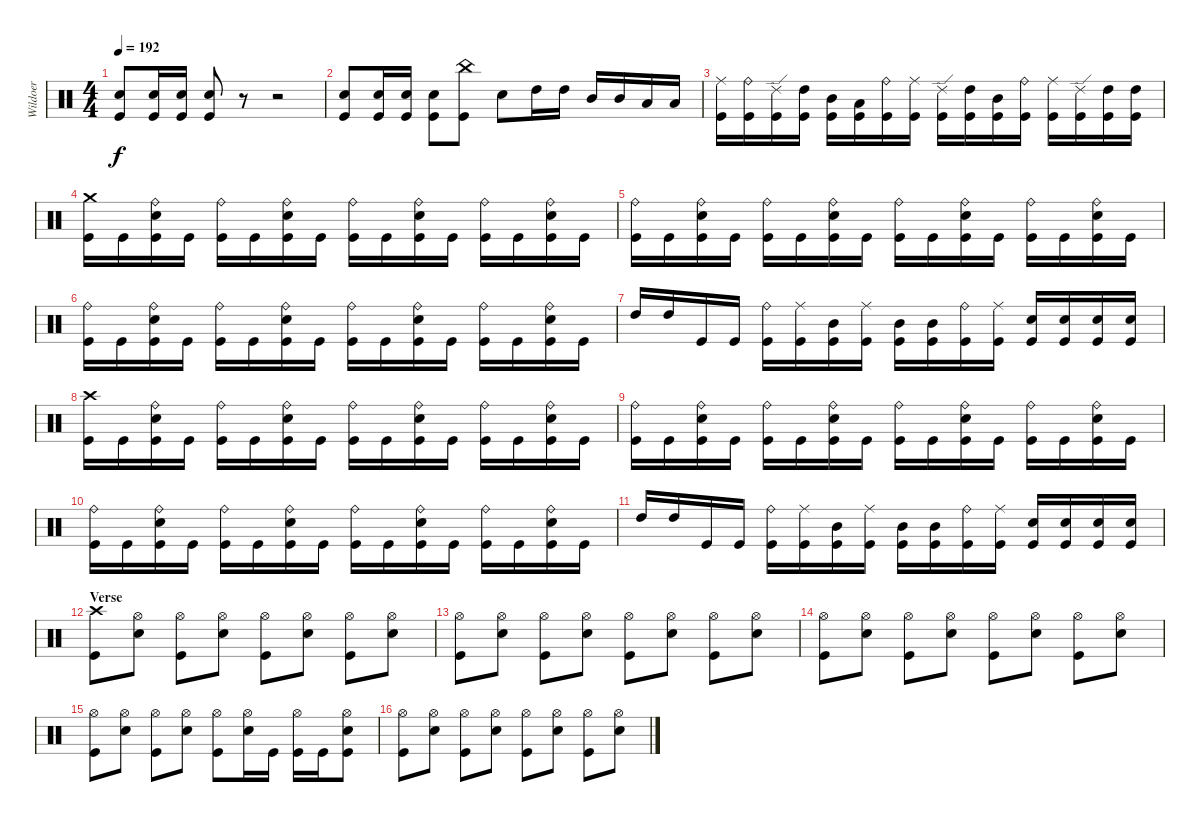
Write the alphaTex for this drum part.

\track ("Wildoer" "Wildoer") {instrument percussion}
\staff {score}
\articulation defaults
\ts (4 4)
\tempo 192
\clef neutral
\ks c
("Electric Snare (hit)" "Kick (hit)").8{dy f} ("Electric Snare (hit)" "Kick (hit)").16 ("Electric Snare (hit)" "Kick (hit)").16 ("Electric Snare (hit)" "Kick (hit)").8 r.8 r.2 |
("Electric Snare (hit)" "Kick (hit)").8 ("Electric Snare (hit)" "Kick (hit)").16 ("Electric Snare (hit)" "Kick (hit)").16 ("Electric Snare (hit)" "Kick (hit)").8 ("China (hit)" "Kick (hit)").8 "Electric Snare (hit)".8 "High Tom (hit)".16 "High Tom (hit)".16 "Mid Tom (hit)".16 "Mid Tom (hit)".16 "Low Tom (hit)".16 "Low Tom (hit)".16 |
("Ride (middle)" "Kick (hit)").16 ("Ride (bell)" "Kick (hit)").16 ("Ride (edge) 2" "Kick (hit)").16 ("High Tom (hit)" "Kick (hit)").16 ("Mid Tom (hit)" "Kick (hit)").16 ("Low Tom (hit)" "Kick (hit)").16 ("Ride (bell)" "Kick (hit)").16 ("Ride (middle)" "Kick (hit)").16 ("Ride (edge) 2" "Kick (hit)").16 ("High Tom (hit)" "Kick (hit)").16 ("Mid Tom (hit)" "Kick (hit)").16 ("Ride (bell)" "Kick (hit)").16 ("Ride (middle)" "Kick (hit)").16 ("Ride (edge) 2" "Kick (hit)").16 ("High Tom (hit)" "Kick (hit)").16 ("High Tom (hit)" "Kick (hit)").16 |
("Crash medium (hit)" "Kick (hit)").16 "Kick (hit)".16 ("Ride (bell)" "Electric Snare (hit)" "Kick (hit)").16 "Kick (hit)".16 ("Ride (bell)" "Kick (hit)").16 "Kick (hit)".16 ("Ride (bell)" "Electric Snare (hit)" "Kick (hit)").16 "Kick (hit)".16 ("Ride (bell)" "Kick (hit)").16 "Kick (hit)".16 ("Ride (bell)" "Electric Snare (hit)" "Kick (hit)").16 "Kick (hit)".16 ("Ride (bell)" "Kick (hit)").16 "Kick (hit)".16 ("Ride (bell)" "Electric Snare (hit)" "Kick (hit)").16 "Kick (hit)".16 |
("Ride (bell)" "Kick (hit)").16 "Kick (hit)".16 ("Ride (bell)" "Electric Snare (hit)" "Kick (hit)").16 "Kick (hit)".16 ("Ride (bell)" "Kick (hit)").16 "Kick (hit)".16 ("Ride (bell)" "Electric Snare (hit)" "Kick (hit)").16 "Kick (hit)".16 ("Ride (bell)" "Kick (hit)").16 "Kick (hit)".16 ("Ride (bell)" "Electric Snare (hit)" "Kick (hit)").16 "Kick (hit)".16 ("Ride (bell)" "Kick (hit)").16 "Kick (hit)".16 ("Ride (bell)" "Electric Snare (hit)" "Kick (hit)").16 "Kick (hit)".16 |
("Ride (bell)" "Kick (hit)").16 "Kick (hit)".16 ("Ride (bell)" "Electric Snare (hit)" "Kick (hit)").16 "Kick (hit)".16 ("Ride (bell)" "Kick (hit)").16 "Kick (hit)".16 ("Ride (bell)" "Electric Snare (hit)" "Kick (hit)").16 "Kick (hit)".16 ("Ride (bell)" "Kick (hit)").16 "Kick (hit)".16 ("Ride (bell)" "Electric Snare (hit)" "Kick (hit)").16 "Kick (hit)".16 ("Ride (bell)" "Kick (hit)").16 "Kick (hit)".16 ("Ride (bell)" "Electric Snare (hit)" "Kick (hit)").16 "Kick (hit)".16 |
"High Tom (hit)".16 "High Tom (hit)".16 "Kick (hit)".16 "Kick (hit)".16 ("Ride (bell)" "Kick (hit)").16 ("Ride (middle)" "Kick (hit)").16 ("Mid Tom (hit)" "Kick (hit)").16 ("Ride (middle)" "Kick (hit)").16 ("Mid Tom (hit)" "Kick (hit)").16 ("Mid Tom (hit)" "Kick (hit)").16 ("Ride (bell)" "Kick (hit)").16 ("Ride (middle)" "Kick (hit)").16 ("Electric Snare (hit)" "Kick (hit)").16 ("Electric Snare (hit)" "Kick (hit)").16 ("Electric Snare (hit)" "Kick (hit)").16 ("Electric Snare (hit)" "Kick (hit)").16 |
("Crash high (hit)" "Kick (hit)").16 "Kick (hit)".16 ("Ride (bell)" "Electric Snare (hit)" "Kick (hit)").16 "Kick (hit)".16 ("Ride (bell)" "Kick (hit)").16 "Kick (hit)".16 ("Ride (bell)" "Electric Snare (hit)" "Kick (hit)").16 "Kick (hit)".16 ("Ride (bell)" "Kick (hit)").16 "Kick (hit)".16 ("Ride (bell)" "Electric Snare (hit)" "Kick (hit)").16 "Kick (hit)".16 ("Ride (bell)" "Kick (hit)").16 "Kick (hit)".16 ("Ride (bell)" "Electric Snare (hit)" "Kick (hit)").16 "Kick (hit)".16 |
("Ride (bell)" "Kick (hit)").16 "Kick (hit)".16 ("Ride (bell)" "Electric Snare (hit)" "Kick (hit)").16 "Kick (hit)".16 ("Ride (bell)" "Kick (hit)").16 "Kick (hit)".16 ("Ride (bell)" "Electric Snare (hit)" "Kick (hit)").16 "Kick (hit)".16 ("Ride (bell)" "Kick (hit)").16 "Kick (hit)".16 ("Ride (bell)" "Electric Snare (hit)" "Kick (hit)").16 "Kick (hit)".16 ("Ride (bell)" "Kick (hit)").16 "Kick (hit)".16 ("Ride (bell)" "Electric Snare (hit)" "Kick (hit)").16 "Kick (hit)".16 |
("Ride (bell)" "Kick (hit)").16 "Kick (hit)".16 ("Ride (bell)" "Electric Snare (hit)" "Kick (hit)").16 "Kick (hit)".16 ("Ride (bell)" "Kick (hit)").16 "Kick (hit)".16 ("Ride (bell)" "Electric Snare (hit)" "Kick (hit)").16 "Kick (hit)".16 ("Ride (bell)" "Kick (hit)").16 "Kick (hit)".16 ("Ride (bell)" "Electric Snare (hit)" "Kick (hit)").16 "Kick (hit)".16 ("Ride (bell)" "Kick (hit)").16 "Kick (hit)".16 ("Ride (bell)" "Electric Snare (hit)" "Kick (hit)").16 "Kick (hit)".16 |
"High Tom (hit)".16 "High Tom (hit)".16 "Kick (hit)".16 "Kick (hit)".16 ("Ride (bell)" "Kick (hit)").16 ("Ride (middle)" "Kick (hit)").16 ("Mid Tom (hit)" "Kick (hit)").16 ("Ride (middle)" "Kick (hit)").16 ("Mid Tom (hit)" "Kick (hit)").16 ("Mid Tom (hit)" "Kick (hit)").16 ("Ride (bell)" "Kick (hit)").16 ("Ride (middle)" "Kick (hit)").16 ("Electric Snare (hit)" "Kick (hit)").16 ("Electric Snare (hit)" "Kick (hit)").16 ("Electric Snare (hit)" "Kick (hit)").16 ("Electric Snare (hit)" "Kick (hit)").16 |
\section ("" "Verse")
("Crash high (hit)" "Kick (hit)").8 ("Hi-Hat (open)" "Electric Snare (hit)").8 ("Hi-Hat (open)" "Kick (hit)").8 ("Hi-Hat (open)" "Electric Snare (hit)").8 ("Hi-Hat (open)" "Kick (hit)").8 ("Hi-Hat (open)" "Electric Snare (hit)").8 ("Hi-Hat (open)" "Kick (hit)").8 ("Hi-Hat (open)" "Electric Snare (hit)").8 |
("Hi-Hat (open)" "Kick (hit)").8 ("Hi-Hat (open)" "Electric Snare (hit)").8 ("Hi-Hat (open)" "Kick (hit)").8 ("Hi-Hat (open)" "Electric Snare (hit)").8 ("Hi-Hat (open)" "Kick (hit)").8 ("Hi-Hat (open)" "Electric Snare (hit)").8 ("Hi-Hat (open)" "Kick (hit)").8 ("Hi-Hat (open)" "Electric Snare (hit)").8 |
("Hi-Hat (open)" "Kick (hit)").8 ("Hi-Hat (open)" "Electric Snare (hit)").8 ("Hi-Hat (open)" "Kick (hit)").8 ("Hi-Hat (open)" "Electric Snare (hit)").8 ("Hi-Hat (open)" "Kick (hit)").8 ("Hi-Hat (open)" "Electric Snare (hit)").8 ("Hi-Hat (open)" "Kick (hit)").8 ("Hi-Hat (open)" "Electric Snare (hit)").8 |
("Hi-Hat (open)" "Kick (hit)").8 ("Hi-Hat (open)" "Electric Snare (hit)").8 ("Hi-Hat (open)" "Kick (hit)").8 ("Hi-Hat (open)" "Electric Snare (hit)").8 ("Hi-Hat (open)" "Kick (hit)").8 ("Hi-Hat (open)" "Electric Snare (hit)").16 "Kick (hit)".16 ("Hi-Hat (open)" "Kick (hit)").16 "Kick (hit)".16 ("Hi-Hat (open)" "Electric Snare (hit)" "Kick (hit)").8 |
("Hi-Hat (open)" "Kick (hit)").8 ("Hi-Hat (open)" "Electric Snare (hit)").8 ("Hi-Hat (open)" "Kick (hit)").8 ("Hi-Hat (open)" "Electric Snare (hit)").8 ("Hi-Hat (open)" "Kick (hit)").8 ("Hi-Hat (open)" "Electric Snare (hit)").8 ("Hi-Hat (open)" "Kick (hit)").8 ("Hi-Hat (open)" "Electric Snare (hit)").8
